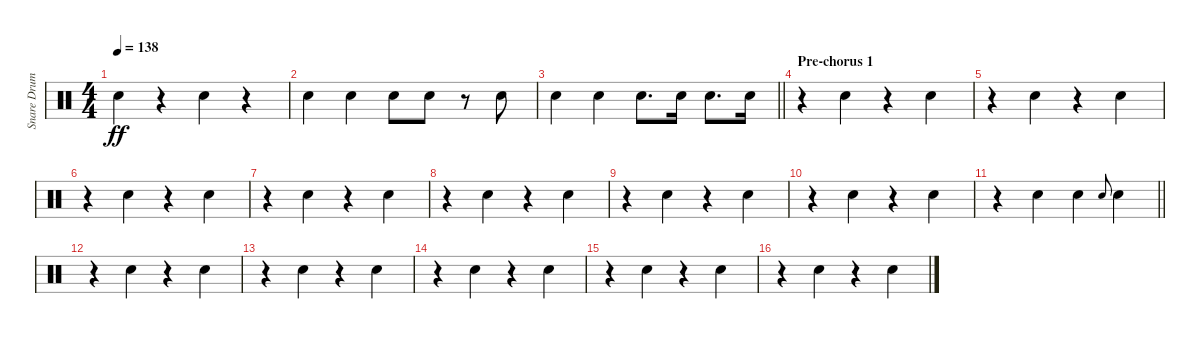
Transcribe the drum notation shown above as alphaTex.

\track ("Snare Drum" "Snare Drum") {instrument percussion}
\staff {score}
\articulation defaults
\ts (4 4)
\tempo 138
\clef neutral
\ks c "Electric Snare (hit)".4{dy ff}
r.4 "Electric Snare (hit)".4 r.4 |
"Electric Snare (hit)".4 "Electric Snare (hit)".4 "Electric Snare (hit)".8 "Electric Snare (hit)".8 r.8 "Electric Snare (hit)".8 |
\barLineRight lightlight "Electric Snare (hit)".4 "Electric Snare (hit)".4 "Electric Snare (hit)".8{d} "Electric Snare (hit)".16 "Electric Snare (hit)".8{d} "Electric Snare (hit)".16
|
\section ("" "Pre-chorus 1")
r.4 "Electric Snare (hit)".4 r.4 "Electric Snare (hit)".4 |
r.4 "Electric Snare (hit)".4 r.4 "Electric Snare (hit)".4 |
r.4 "Electric Snare (hit)".4 r.4 "Electric Snare (hit)".4 |
r.4 "Electric Snare (hit)".4 r.4 "Electric Snare (hit)".4 |
r.4 "Electric Snare (hit)".4 r.4 "Electric Snare (hit)".4 |
r.4 "Electric Snare (hit)".4 r.4 "Electric Snare (hit)".4 |
r.4 "Electric Snare (hit)".4 r.4 "Electric Snare (hit)".4 |
\barLineRight lightlight
r.4 "Electric Snare (hit)".4 "Electric Snare (hit)".4 "Electric Snare (hit)".8{gr onbeat} "Electric Snare (hit)".4 |
r.4 "Electric Snare (hit)".4 r.4 "Electric Snare (hit)".4 |
r.4 "Electric Snare (hit)".4 r.4 "Electric Snare (hit)".4 |
r.4 "Electric Snare (hit)".4 r.4 "Electric Snare (hit)".4 |
r.4 "Electric Snare (hit)".4 r.4 "Electric Snare (hit)".4 |
r.4 "Electric Snare (hit)".4 r.4 "Electric Snare (hit)".4
